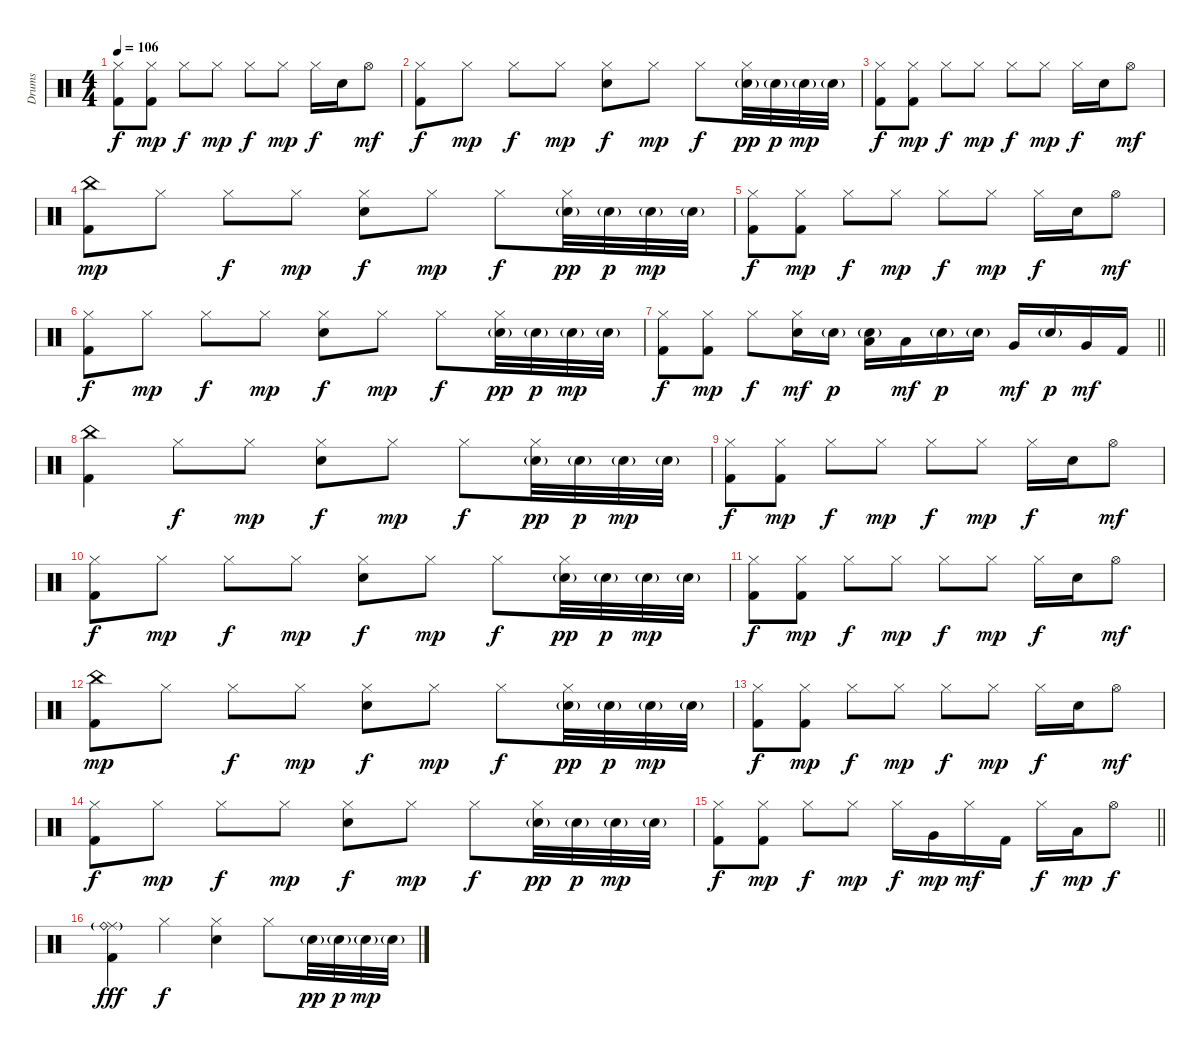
\track ("Drums" "Drums") {instrument percussion}
\staff {score}
\articulation defaults
\ts (4 4)
\tempo 106
\clef neutral
\ks c
("Hi-Hat (closed)" "Kick (hit) 2").8{dy f} ("Hi-Hat (closed)" "Kick (hit) 2").8{dy mp} "Hi-Hat (closed)".8{dy f} "Hi-Hat (closed)".8{dy mp} "Hi-Hat (closed)".8{dy f} "Hi-Hat (closed)".8{dy mp} "Hi-Hat (closed)".16{dy f} "Electric Snare (hit)".16 "Hi-Hat (open)".8{dy mf} |
("Hi-Hat (closed)" "Kick (hit) 2").8{dy f} "Hi-Hat (closed)".8{dy mp} "Hi-Hat (closed)".8{dy f} "Hi-Hat (closed)".8{dy mp} ("Hi-Hat (closed)" "Electric Snare (hit)").8{dy f} "Hi-Hat (closed)".8{dy mp} "Hi-Hat (closed)".8{dy f} ("Hi-Hat (closed)" "Electric Snare (hit)"{g}).32{dy pp} "Electric Snare (hit)"{g}.32{dy p} "Electric Snare (hit)"{g}.32{dy mp} "Electric Snare (hit)"{g}.32 |
("Hi-Hat (closed)" "Kick (hit) 2").8{dy f} ("Hi-Hat (closed)" "Kick (hit) 2").8{dy mp} "Hi-Hat (closed)".8{dy f} "Hi-Hat (closed)".8{dy mp} "Hi-Hat (closed)".8{dy f} "Hi-Hat (closed)".8{dy mp} "Hi-Hat (closed)".16{dy f} "Electric Snare (hit)".16 "Hi-Hat (open)".8{dy mf} |
("China (hit)" "Kick (hit) 2").8{dy mp} "Hi-Hat (closed)".8 "Hi-Hat (closed)".8{dy f} "Hi-Hat (closed)".8{dy mp} ("Hi-Hat (closed)" "Electric Snare (hit)").8{dy f} "Hi-Hat (closed)".8{dy mp} "Hi-Hat (closed)".8{dy f} ("Hi-Hat (closed)" "Electric Snare (hit)"{g}).32{dy pp} "Electric Snare (hit)"{g}.32{dy p} "Electric Snare (hit)"{g}.32{dy mp} "Electric Snare (hit)"{g}.32 |
("Hi-Hat (closed)" "Kick (hit) 2").8{dy f} ("Hi-Hat (closed)" "Kick (hit) 2").8{dy mp} "Hi-Hat (closed)".8{dy f} "Hi-Hat (closed)".8{dy mp} "Hi-Hat (closed)".8{dy f} "Hi-Hat (closed)".8{dy mp} "Hi-Hat (closed)".16{dy f} "Electric Snare (hit)".16 "Hi-Hat (open)".8{dy mf} |
("Hi-Hat (closed)" "Kick (hit) 2").8{dy f} "Hi-Hat (closed)".8{dy mp} "Hi-Hat (closed)".8{dy f} "Hi-Hat (closed)".8{dy mp} ("Hi-Hat (closed)" "Electric Snare (hit)").8{dy f} "Hi-Hat (closed)".8{dy mp} "Hi-Hat (closed)".8{dy f} ("Hi-Hat (closed)" "Electric Snare (hit)"{g}).32{dy pp} "Electric Snare (hit)"{g}.32{dy p} "Electric Snare (hit)"{g}.32{dy mp} "Electric Snare (hit)"{g}.32 |
\barLineRight lightlight
("Hi-Hat (closed)" "Kick (hit) 2").8{dy f} ("Hi-Hat (closed)" "Kick (hit) 2").8{dy mp} "Hi-Hat (closed)".8{dy f} ("Hi-Hat (closed)" "Electric Snare (hit)").16{dy mf} "Electric Snare (hit)"{g}.16{dy p} ("Low Tom (hit)" "Electric Snare (hit)"{g}).16 "Low Tom (hit)".16{dy mf} "Electric Snare (hit)"{g}.16{dy p} "Electric Snare (hit)"{g}.16 "Very Low Tom (hit)".16{dy mf} "Electric Snare (hit)"{g}.16{dy p} "Very Low Tom (hit)".16{dy mf} "Kick (hit) 2".16 |
("China (hit)" "Kick (hit) 2").4 "Hi-Hat (closed)".8{dy f} "Hi-Hat (closed)".8{dy mp} ("Hi-Hat (closed)" "Electric Snare (hit)").8{dy f} "Hi-Hat (closed)".8{dy mp} "Hi-Hat (closed)".8{dy f} ("Hi-Hat (closed)" "Electric Snare (hit)"{g}).32{dy pp} "Electric Snare (hit)"{g}.32{dy p} "Electric Snare (hit)"{g}.32{dy mp} "Electric Snare (hit)"{g}.32 |
("Hi-Hat (closed)" "Kick (hit) 2").8{dy f} ("Hi-Hat (closed)" "Kick (hit) 2").8{dy mp} "Hi-Hat (closed)".8{dy f} "Hi-Hat (closed)".8{dy mp} "Hi-Hat (closed)".8{dy f} "Hi-Hat (closed)".8{dy mp} "Hi-Hat (closed)".16{dy f} "Electric Snare (hit)".16 "Hi-Hat (open)".8{dy mf} |
("Hi-Hat (closed)" "Kick (hit) 2").8{dy f} "Hi-Hat (closed)".8{dy mp} "Hi-Hat (closed)".8{dy f} "Hi-Hat (closed)".8{dy mp} ("Hi-Hat (closed)" "Electric Snare (hit)").8{dy f} "Hi-Hat (closed)".8{dy mp} "Hi-Hat (closed)".8{dy f} ("Hi-Hat (closed)" "Electric Snare (hit)"{g}).32{dy pp} "Electric Snare (hit)"{g}.32{dy p} "Electric Snare (hit)"{g}.32{dy mp} "Electric Snare (hit)"{g}.32 |
("Hi-Hat (closed)" "Kick (hit) 2").8{dy f} ("Hi-Hat (closed)" "Kick (hit) 2").8{dy mp} "Hi-Hat (closed)".8{dy f} "Hi-Hat (closed)".8{dy mp} "Hi-Hat (closed)".8{dy f} "Hi-Hat (closed)".8{dy mp} "Hi-Hat (closed)".16{dy f} "Electric Snare (hit)".16 "Hi-Hat (open)".8{dy mf} |
("China (hit)" "Kick (hit) 2").8{dy mp} "Hi-Hat (closed)".8 "Hi-Hat (closed)".8{dy f} "Hi-Hat (closed)".8{dy mp} ("Hi-Hat (closed)" "Electric Snare (hit)").8{dy f} "Hi-Hat (closed)".8{dy mp} "Hi-Hat (closed)".8{dy f} ("Hi-Hat (closed)" "Electric Snare (hit)"{g}).32{dy pp} "Electric Snare (hit)"{g}.32{dy p} "Electric Snare (hit)"{g}.32{dy mp} "Electric Snare (hit)"{g}.32 |
("Hi-Hat (closed)" "Kick (hit) 2").8{dy f} ("Hi-Hat (closed)" "Kick (hit) 2").8{dy mp} "Hi-Hat (closed)".8{dy f} "Hi-Hat (closed)".8{dy mp} "Hi-Hat (closed)".8{dy f} "Hi-Hat (closed)".8{dy mp} "Hi-Hat (closed)".16{dy f} "Electric Snare (hit)".16 "Hi-Hat (open)".8{dy mf} |
("Hi-Hat (closed)" "Kick (hit) 2").8{dy f} "Hi-Hat (closed)".8{dy mp} "Hi-Hat (closed)".8{dy f} "Hi-Hat (closed)".8{dy mp} ("Hi-Hat (closed)" "Electric Snare (hit)").8{dy f} "Hi-Hat (closed)".8{dy mp} "Hi-Hat (closed)".8{dy f} ("Hi-Hat (closed)" "Electric Snare (hit)"{g}).32{dy pp} "Electric Snare (hit)"{g}.32{dy p} "Electric Snare (hit)"{g}.32{dy mp} "Electric Snare (hit)"{g}.32 |
\barLineRight lightlight
("Hi-Hat (closed)" "Kick (hit) 2").8{dy f} ("Hi-Hat (closed)" "Kick (hit) 2").8{dy mp} "Hi-Hat (closed)".8{dy f} "Hi-Hat (closed)".8{dy mp} "Hi-Hat (closed)".16{dy f} "Very Low Tom (hit)".16{dy mp} "Hi-Hat (closed)".16{dy mf} "Kick (hit) 2".16 "Hi-Hat (closed)".16{dy f} "Low Tom (hit)".16{dy mp} "Hi-Hat (open)".8{dy f} |
("Ride (middle)" "Ride (bell)"{g} "Kick (hit) 2").4{dy fff} "Hi-Hat (closed)".4{dy f} ("Hi-Hat (closed)" "Electric Snare (hit)").4 "Hi-Hat (closed)".8 "Electric Snare (hit)"{g}.32{dy pp} "Electric Snare (hit)"{g}.32{dy p} "Electric Snare (hit)"{g}.32{dy mp} "Electric Snare (hit)"{g}.32
